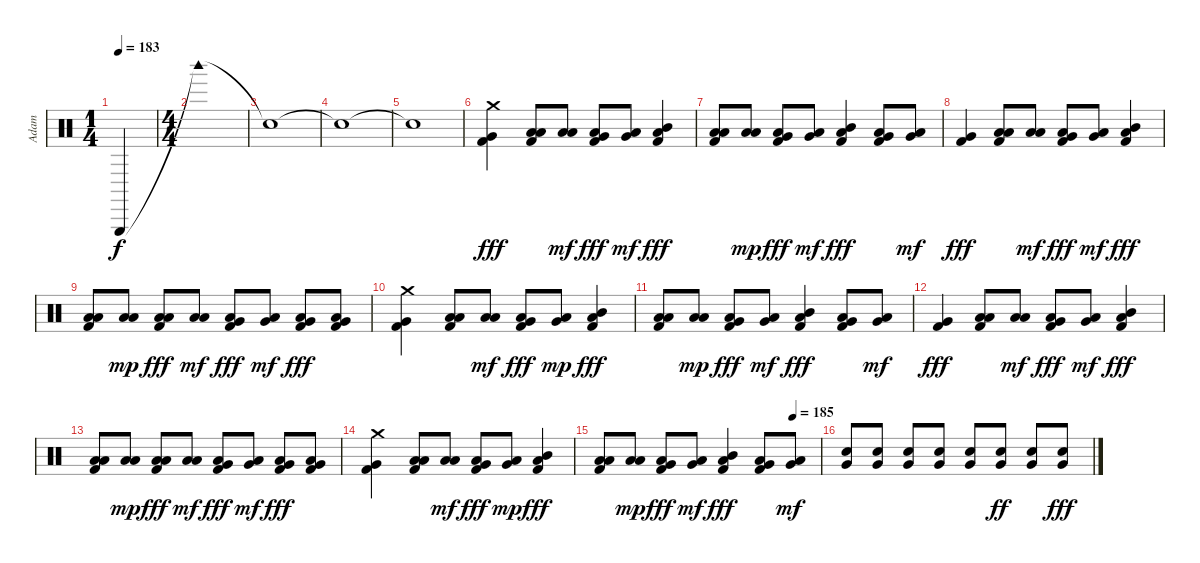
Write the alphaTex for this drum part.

\track ("Adam" "Adam") {instrument percussion}
\staff {score}
\articulation defaults
\ts (1 4)
\tempo 183
\tempo 175
\tempo 183
\clef neutral
\ks c "Triangle (hit)".4{dy f volume 16}
|
\ts (4 4)
"Woodblock high (hit)"{t}.1 |
"Snare (hit)"{t}.1{volume 8} |
"Snare (hit)"{t}.1 |
"Snare (hit)"{t}.1 |
("Crash medium (hit)" "Very Low Tom (hit)" "Kick (hit) 2").4{dy fff volume 13} ("Low Tom (hit)" "Low Floor Tom (hit)" "Kick (hit) 2").8 ("Low Tom (hit)" "Low Floor Tom (hit)").8{dy mf} ("Very Low Tom (hit)" "Low Floor Tom (hit)" "Kick (hit) 2").8{dy fff} ("Very Low Tom (hit)" "Low Floor Tom (hit)").8{dy mf} ("Mid Tom (hit)" "Low Floor Tom (hit)" "Kick (hit) 2").4{dy fff} |
("Low Tom (hit)" "Low Floor Tom (hit)" "Kick (hit) 2").8 ("Low Tom (hit)" "Low Floor Tom (hit)").8{dy mp} ("Very Low Tom (hit)" "Low Floor Tom (hit)" "Kick (hit) 2").8{dy fff} ("Very Low Tom (hit)" "Low Floor Tom (hit)").8{dy mf} ("Mid Tom (hit)" "Low Floor Tom (hit)" "Kick (hit) 2").4{dy fff} ("Very Low Tom (hit)" "Low Floor Tom (hit)" "Kick (hit) 2").8 ("Very Low Tom (hit)" "Low Floor Tom (hit)").8{dy mf} |
("Very Low Tom (hit)" "Kick (hit) 2").4{dy fff volume 13} ("Low Tom (hit)" "Low Floor Tom (hit)" "Kick (hit) 2").8 ("Low Tom (hit)" "Low Floor Tom (hit)").8{dy mf} ("Very Low Tom (hit)" "Low Floor Tom (hit)" "Kick (hit) 2").8{dy fff} ("Very Low Tom (hit)" "Low Floor Tom (hit)").8{dy mf} ("Mid Tom (hit)" "Low Floor Tom (hit)" "Kick (hit) 2").4{dy fff} |
("Low Tom (hit)" "Low Floor Tom (hit)" "Kick (hit) 2").8 ("Low Tom (hit)" "Low Floor Tom (hit)").8{dy mp} ("Low Tom (hit)" "Low Floor Tom (hit)" "Kick (hit) 2").8{dy fff} ("Low Tom (hit)" "Low Floor Tom (hit)").8{dy mf} ("Very Low Tom (hit)" "Low Floor Tom (hit)" "Kick (hit) 2").8{dy fff} ("Very Low Tom (hit)" "Low Floor Tom (hit)").8{dy mf} ("Very Low Tom (hit)" "Low Floor Tom (hit)" "Kick (hit) 2").8{dy fff} ("Very Low Tom (hit)" "Low Floor Tom (hit)" "Kick (hit) 2").8 |
("Crash medium (hit)" "Very Low Tom (hit)" "Kick (hit) 2").4{volume 13} ("Low Tom (hit)" "Low Floor Tom (hit)" "Kick (hit) 2").8 ("Low Tom (hit)" "Low Floor Tom (hit)").8{dy mf} ("Very Low Tom (hit)" "Low Floor Tom (hit)" "Kick (hit) 2").8{dy fff} ("Very Low Tom (hit)" "Low Floor Tom (hit)").8{dy mp} ("Mid Tom (hit)" "Low Floor Tom (hit)" "Kick (hit) 2").4{dy fff} |
("Low Tom (hit)" "Low Floor Tom (hit)" "Kick (hit) 2").8 ("Low Tom (hit)" "Low Floor Tom (hit)").8{dy mp} ("Very Low Tom (hit)" "Low Floor Tom (hit)" "Kick (hit) 2").8{dy fff} ("Very Low Tom (hit)" "Low Floor Tom (hit)").8{dy mf} ("Mid Tom (hit)" "Low Floor Tom (hit)" "Kick (hit) 2").4{dy fff} ("Very Low Tom (hit)" "Low Floor Tom (hit)" "Kick (hit) 2").8 ("Very Low Tom (hit)" "Low Floor Tom (hit)").8{dy mf} |
("Very Low Tom (hit)" "Kick (hit) 2").4{dy fff volume 13} ("Low Tom (hit)" "Low Floor Tom (hit)" "Kick (hit) 2").8 ("Low Tom (hit)" "Low Floor Tom (hit)").8{dy mf} ("Very Low Tom (hit)" "Low Floor Tom (hit)" "Kick (hit) 2").8{dy fff} ("Very Low Tom (hit)" "Low Floor Tom (hit)").8{dy mf} ("Mid Tom (hit)" "Low Floor Tom (hit)" "Kick (hit) 2").4{dy fff} |
("Low Tom (hit)" "Low Floor Tom (hit)" "Kick (hit) 2").8 ("Low Tom (hit)" "Low Floor Tom (hit)").8{dy mp} ("Low Tom (hit)" "Low Floor Tom (hit)" "Kick (hit) 2").8{dy fff} ("Low Tom (hit)" "Low Floor Tom (hit)").8{dy mf} ("Very Low Tom (hit)" "Low Floor Tom (hit)" "Kick (hit) 2").8{dy fff} ("Very Low Tom (hit)" "Low Floor Tom (hit)").8{dy mf} ("Very Low Tom (hit)" "Low Floor Tom (hit)" "Kick (hit) 2").8{dy fff} ("Very Low Tom (hit)" "Low Floor Tom (hit)" "Kick (hit) 2").8 |
("Crash medium (hit)" "Very Low Tom (hit)" "Kick (hit) 2").4{volume 13} ("Low Tom (hit)" "Low Floor Tom (hit)" "Kick (hit) 2").8 ("Low Tom (hit)" "Low Floor Tom (hit)").8{dy mf} ("Very Low Tom (hit)" "Low Floor Tom (hit)" "Kick (hit) 2").8{dy fff} ("Very Low Tom (hit)" "Low Floor Tom (hit)").8{dy mp} ("Mid Tom (hit)" "Low Floor Tom (hit)" "Kick (hit) 2").4{dy fff} |
\tempo (185 0.875)
("Low Tom (hit)" "Low Floor Tom (hit)" "Kick (hit) 2").8 ("Low Tom (hit)" "Low Floor Tom (hit)").8{dy mp} ("Very Low Tom (hit)" "Low Floor Tom (hit)" "Kick (hit) 2").8{dy fff} ("Very Low Tom (hit)" "Low Floor Tom (hit)").8{dy mf} ("Mid Tom (hit)" "Low Floor Tom (hit)" "Kick (hit) 2").4{dy fff} ("Very Low Tom (hit)" "Low Floor Tom (hit)" "Kick (hit) 2").8 ("Very Low Tom (hit)" "Low Floor Tom (hit)").8{dy mf} |
("Electric Snare (hit)" "Very Low Tom (hit)").8 ("Electric Snare (hit)" "Very Low Tom (hit)").8 ("Electric Snare (hit)" "Very Low Tom (hit)").8 ("Electric Snare (hit)" "Very Low Tom (hit)").8 ("Electric Snare (hit)" "Very Low Tom (hit)").8 ("Electric Snare (hit)" "Very Low Tom (hit)").8{dy ff} ("Electric Snare (hit)" "Very Low Tom (hit)").8 ("Electric Snare (hit)" "Very Low Tom (hit)").8{dy fff}
